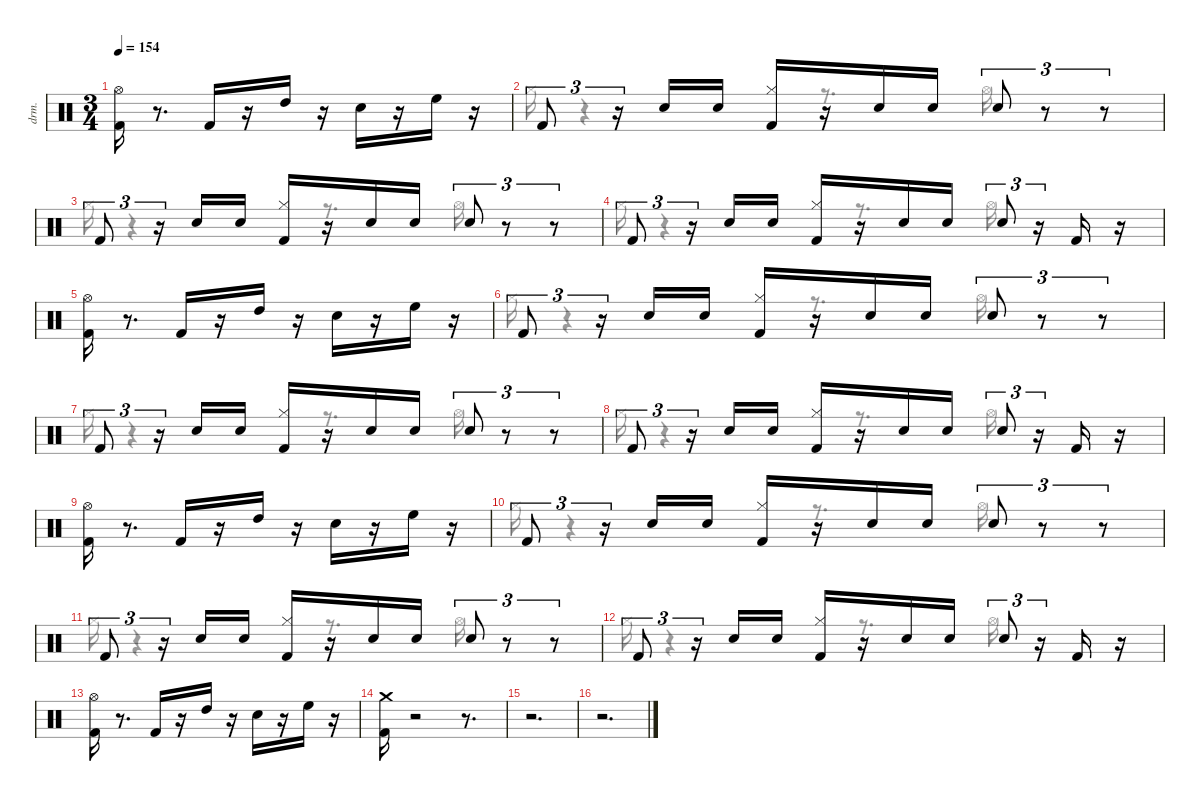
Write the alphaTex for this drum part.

\defaultSystemsLayout 4
\hideDynamics
\bracketExtendMode nobrackets
\otherSystemsTrackNameOrientation horizontal
\track ("EZdrummer 3" "drm.") {instrument percussion}
\staff {score}
\articulation defaults
\voice
\ts (3 4)
\tempo 154
\clef neutral
\ks aminor
("Kick (hit) 2" "Hi-Hat (open)"{acc #}).16{dy fff beam Down} r.8{d beam Down} "Kick (hit) 2".16{dy ff beam Up} r.16{beam Up} "High Tom (hit)".16{beam Down} r.16{beam Down} "Snare (hit) 2".16{beam Down} r.16{beam Down} "High Floor Tom (hit)".16{beam Down} r.16{beam Down} |
"Kick (hit) 2".8{tu (3 2) beam Up} r.16{tu (3 2) beam Up} "Snare (hit) 2".16{dy ppp beam Up} "Snare (hit) 2".16{beam Up} ("Kick (hit) 2" "Hi-Hat (closed)"{acc #}).16{dy mf beam Up} r.16{beam Up} "Snare (hit) 2".16{dy ppp beam Up} "Snare (hit) 2".16{beam Up} "Snare (hit) 2".8{tu (3 2) dy ff beam Up} r.8{tu (3 2) beam Up} r.8{tu (3 2) beam Up} |
"Kick (hit) 2".8{tu (3 2) beam Up} r.16{tu (3 2) beam Up} "Snare (hit) 2".16{dy ppp beam Up} "Snare (hit) 2".16{beam Up} ("Kick (hit) 2" "Hi-Hat (closed)"{acc #}).16{dy f beam Up} r.16{beam Up} "Snare (hit) 2".16{dy ppp beam Up} "Snare (hit) 2".16{beam Up} "Snare (hit) 2".8{tu (3 2) dy ff beam Up} r.8{tu (3 2) beam Up} r.8{tu (3 2) beam Up} |
"Kick (hit) 2".8{tu (3 2) beam Up} r.16{tu (3 2) beam Up} "Snare (hit) 2".16{dy ppp beam Up} "Snare (hit) 2".16{beam Up} ("Kick (hit) 2" "Hi-Hat (closed)"{acc #}).16{dy f beam Up} r.16{beam Up} "Snare (hit) 2".16{dy ppp beam Up} "Snare (hit) 2".16{beam Up} "Snare (hit) 2".8{tu (3 2) dy ff beam Up} r.16{tu (3 2) beam Up} "Kick (hit) 2".16{dy pp beam Up} r.16{beam Up} |
("Kick (hit) 2" "Hi-Hat (open)"{acc #}).16{dy fff beam Down} r.8{d beam Down} "Kick (hit) 2".16{dy ff beam Up} r.16{beam Up} "High Tom (hit)".16{beam Down} r.16{beam Down} "Snare (hit) 2".16{beam Down} r.16{beam Down} "High Floor Tom (hit)".16{beam Down} r.16{beam Down} |
"Kick (hit) 2".8{tu (3 2) beam Up} r.16{tu (3 2) beam Up} "Snare (hit) 2".16{dy ppp beam Up} "Snare (hit) 2".16{beam Up} ("Kick (hit) 2" "Hi-Hat (closed)"{acc #}).16{dy mf beam Up} r.16{beam Up} "Snare (hit) 2".16{dy ppp beam Up} "Snare (hit) 2".16{beam Up} "Snare (hit) 2".8{tu (3 2) dy ff beam Up} r.8{tu (3 2) beam Up} r.8{tu (3 2) beam Up} |
"Kick (hit) 2".8{tu (3 2) beam Up} r.16{tu (3 2) beam Up} "Snare (hit) 2".16{dy ppp beam Up} "Snare (hit) 2".16{beam Up} ("Kick (hit) 2" "Hi-Hat (closed)"{acc #}).16{dy f beam Up} r.16{beam Up} "Snare (hit) 2".16{dy ppp beam Up} "Snare (hit) 2".16{beam Up} "Snare (hit) 2".8{tu (3 2) dy ff beam Up} r.8{tu (3 2) beam Up} r.8{tu (3 2) beam Up} |
"Kick (hit) 2".8{tu (3 2) beam Up} r.16{tu (3 2) beam Up} "Snare (hit) 2".16{dy ppp beam Up} "Snare (hit) 2".16{beam Up} ("Kick (hit) 2" "Hi-Hat (closed)"{acc #}).16{dy f beam Up} r.16{beam Up} "Snare (hit) 2".16{dy ppp beam Up} "Snare (hit) 2".16{beam Up} "Snare (hit) 2".8{tu (3 2) dy ff beam Up} r.16{tu (3 2) beam Up} "Kick (hit) 2".16{dy pp beam Up} r.16{beam Up} |
("Kick (hit) 2" "Hi-Hat (open)"{acc #}).16{dy fff beam Down} r.8{d beam Down} "Kick (hit) 2".16{dy ff beam Up} r.16{beam Up} "High Tom (hit)".16{beam Down} r.16{beam Down} "Snare (hit) 2".16{beam Down} r.16{beam Down} "High Floor Tom (hit)".16{beam Down} r.16{beam Down} |
"Kick (hit) 2".8{tu (3 2) beam Up} r.16{tu (3 2) beam Up} "Snare (hit) 2".16{dy ppp beam Up} "Snare (hit) 2".16{beam Up} ("Kick (hit) 2" "Hi-Hat (closed)"{acc #}).16{dy mf beam Up} r.16{beam Up} "Snare (hit) 2".16{dy ppp beam Up} "Snare (hit) 2".16{beam Up} "Snare (hit) 2".8{tu (3 2) dy ff beam Up} r.8{tu (3 2) beam Up} r.8{tu (3 2) beam Up} |
"Kick (hit) 2".8{tu (3 2) beam Up} r.16{tu (3 2) beam Up} "Snare (hit) 2".16{dy ppp beam Up} "Snare (hit) 2".16{beam Up} ("Kick (hit) 2" "Hi-Hat (closed)"{acc #}).16{dy f beam Up} r.16{beam Up} "Snare (hit) 2".16{dy ppp beam Up} "Snare (hit) 2".16{beam Up} "Snare (hit) 2".8{tu (3 2) dy ff beam Up} r.8{tu (3 2) beam Up} r.8{tu (3 2) beam Up} |
"Kick (hit) 2".8{tu (3 2) beam Up} r.16{tu (3 2) beam Up} "Snare (hit) 2".16{dy ppp beam Up} "Snare (hit) 2".16{beam Up} ("Kick (hit) 2" "Hi-Hat (closed)"{acc #}).16{dy f beam Up} r.16{beam Up} "Snare (hit) 2".16{dy ppp beam Up} "Snare (hit) 2".16{beam Up} "Snare (hit) 2".8{tu (3 2) dy ff beam Up} r.16{tu (3 2) beam Up} "Kick (hit) 2".16{dy pp beam Up} r.16{beam Up} |
("Kick (hit) 2" "Hi-Hat (open)"{acc #}).16{dy fff beam Down} r.8{d beam Down} "Kick (hit) 2".16{dy ff beam Up} r.16{beam Up} "High Tom (hit)".16{beam Down} r.16{beam Down} "Snare (hit) 2".16{beam Down} r.16{beam Down} "High Floor Tom (hit)".16{beam Down} r.16{beam Down} |
("Kick (hit) 2" "Crash medium (hit)").16{dy f beam Down} r.2{beam Down} r.8{d beam Down} |
r.2{d beam Down} |
r.2{d beam Down}
\voice
\clef neutral
\ottava regular
\simile none
\ks aminor
|
"Hi-Hat (closed)"{acc #}.16{beam Down} r.4{beam Down} r.8{d beam Down} "Hi-Hat (open)"{acc #}.16{beam Down} |
"Hi-Hat (closed)"{acc #}.16{beam Down} r.4{beam Down} r.8{d beam Down} "Hi-Hat (open)"{acc #}.16{beam Down} |
"Hi-Hat (closed)"{acc #}.16{beam Down} r.4{beam Down} r.8{d beam Down} "Hi-Hat (open)"{acc #}.16{beam Down} |
|
"Hi-Hat (closed)"{acc #}.16{beam Down} r.4{beam Down} r.8{d beam Down} "Hi-Hat (open)"{acc #}.16{beam Down} |
"Hi-Hat (closed)"{acc #}.16{beam Down} r.4{beam Down} r.8{d beam Down} "Hi-Hat (open)"{acc #}.16{beam Down} |
"Hi-Hat (closed)"{acc #}.16{beam Down} r.4{beam Down} r.8{d beam Down} "Hi-Hat (open)"{acc #}.16{beam Down} |
|
"Hi-Hat (closed)"{acc #}.16{beam Down} r.4{beam Down} r.8{d beam Down} "Hi-Hat (open)"{acc #}.16{beam Down} |
"Hi-Hat (closed)"{acc #}.16{beam Down} r.4{beam Down} r.8{d beam Down} "Hi-Hat (open)"{acc #}.16{beam Down} |
"Hi-Hat (closed)"{acc #}.16{beam Down} r.4{beam Down} r.8{d beam Down} "Hi-Hat (open)"{acc #}.16{beam Down} |
|
|
|
